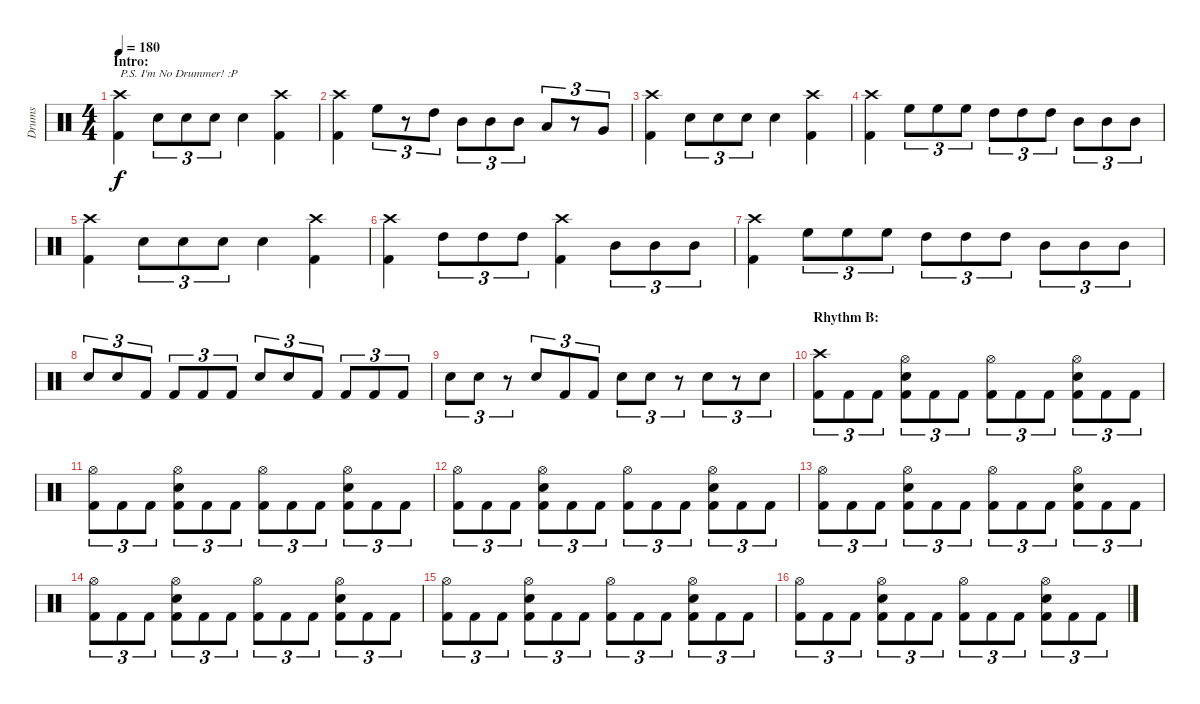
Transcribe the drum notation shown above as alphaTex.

\track ("Drums" "Drums") {instrument percussion}
\staff {score}
\articulation defaults
\ts (4 4)
\section ("" "Intro:")
\tempo 180
\clef neutral
\ks c
("Crash high (hit)" "Kick (hit) 2").4{txt "P.S. I'm No Drummer! :P" dy f} "Electric Snare (hit)".8{tu (3 2)} "Electric Snare (hit)".8{tu (3 2)} "Electric Snare (hit)".8{tu (3 2)} "Electric Snare (hit)".4 ("Crash high (hit)" "Kick (hit) 2").4 |
("Crash high (hit)" "Kick (hit) 2").4 "High Floor Tom (hit)".8{tu (3 2)} r.8{tu (3 2)} "High Tom (hit)".8{tu (3 2)} "Mid Tom (hit)".8{tu (3 2)} "Mid Tom (hit)".8{tu (3 2)} "Mid Tom (hit)".8{tu (3 2)} "Low Tom (hit)".8{tu (3 2)} r.8{tu (3 2)} "Very Low Tom (hit)".8{tu (3 2)} |
("Crash high (hit)" "Kick (hit) 2").4 "Electric Snare (hit)".8{tu (3 2)} "Electric Snare (hit)".8{tu (3 2)} "Electric Snare (hit)".8{tu (3 2)} "Electric Snare (hit)".4 ("Crash high (hit)" "Kick (hit) 2").4 |
("Crash high (hit)" "Kick (hit) 2").4 "High Floor Tom (hit)".8{tu (3 2)} "High Floor Tom (hit)".8{tu (3 2)} "High Floor Tom (hit)".8{tu (3 2)} "High Tom (hit)".8{tu (3 2)} "High Tom (hit)".8{tu (3 2)} "High Tom (hit)".8{tu (3 2)} "Mid Tom (hit)".8{tu (3 2)} "Mid Tom (hit)".8{tu (3 2)} "Mid Tom (hit)".8{tu (3 2)} |
("Crash high (hit)" "Kick (hit) 2").4 "Electric Snare (hit)".8{tu (3 2)} "Electric Snare (hit)".8{tu (3 2)} "Electric Snare (hit)".8{tu (3 2)} "Electric Snare (hit)".4 ("Crash high (hit)" "Kick (hit) 2").4 |
("Crash high (hit)" "Kick (hit) 2").4 "High Tom (hit)".8{tu (3 2)} "High Tom (hit)".8{tu (3 2)} "High Tom (hit)".8{tu (3 2)} ("Crash high (hit)" "Kick (hit) 2").4 "Mid Tom (hit)".8{tu (3 2)} "Mid Tom (hit)".8{tu (3 2)} "Mid Tom (hit)".8{tu (3 2)} |
("Crash high (hit)" "Kick (hit) 2").4 "High Floor Tom (hit)".8{tu (3 2)} "High Floor Tom (hit)".8{tu (3 2)} "High Floor Tom (hit)".8{tu (3 2)} "High Tom (hit)".8{tu (3 2)} "High Tom (hit)".8{tu (3 2)} "High Tom (hit)".8{tu (3 2)} "Mid Tom (hit)".8{tu (3 2)} "Mid Tom (hit)".8{tu (3 2)} "Mid Tom (hit)".8{tu (3 2)} |
"Electric Snare (hit)".8{tu (3 2)} "Electric Snare (hit)".8{tu (3 2)} "Kick (hit) 2".8{tu (3 2)} "Kick (hit) 2".8{tu (3 2)} "Kick (hit) 2".8{tu (3 2)} "Kick (hit) 2".8{tu (3 2)} "Electric Snare (hit)".8{tu (3 2)} "Electric Snare (hit)".8{tu (3 2)} "Kick (hit) 2".8{tu (3 2)} "Kick (hit) 2".8{tu (3 2)} "Kick (hit) 2".8{tu (3 2)} "Kick (hit) 2".8{tu (3 2)} |
"Electric Snare (hit)".8{tu (3 2)} "Electric Snare (hit)".8{tu (3 2)} r.8{tu (3 2)} "Electric Snare (hit)".8{tu (3 2)} "Kick (hit) 2".8{tu (3 2)} "Kick (hit) 2".8{tu (3 2)} "Electric Snare (hit)".8{tu (3 2)} "Electric Snare (hit)".8{tu (3 2)} r.8{tu (3 2)} "Electric Snare (hit)".8{tu (3 2)} r.8{tu (3 2)} "Electric Snare (hit)".8{tu (3 2)} |
\section ("" "Rhythm B:")
("Crash high (hit)" "Kick (hit) 2").8{tu (3 2)} "Kick (hit) 2".8{tu (3 2)} "Kick (hit) 2".8{tu (3 2)} ("Hi-Hat (open)" "Electric Snare (hit)" "Kick (hit) 2").8{tu (3 2)} "Kick (hit) 2".8{tu (3 2)} "Kick (hit) 2".8{tu (3 2)} ("Hi-Hat (open)" "Kick (hit) 2").8{tu (3 2)} "Kick (hit) 2".8{tu (3 2)} "Kick (hit) 2".8{tu (3 2)} ("Hi-Hat (open)" "Electric Snare (hit)" "Kick (hit) 2").8{tu (3 2)} "Kick (hit) 2".8{tu (3 2)} "Kick (hit) 2".8{tu (3 2)} |
("Hi-Hat (open)" "Kick (hit) 2").8{tu (3 2)} "Kick (hit) 2".8{tu (3 2)} "Kick (hit) 2".8{tu (3 2)} ("Hi-Hat (open)" "Electric Snare (hit)" "Kick (hit) 2").8{tu (3 2)} "Kick (hit) 2".8{tu (3 2)} "Kick (hit) 2".8{tu (3 2)} ("Hi-Hat (open)" "Kick (hit) 2").8{tu (3 2)} "Kick (hit) 2".8{tu (3 2)} "Kick (hit) 2".8{tu (3 2)} ("Hi-Hat (open)" "Electric Snare (hit)" "Kick (hit) 2").8{tu (3 2)} "Kick (hit) 2".8{tu (3 2)} "Kick (hit) 2".8{tu (3 2)} |
("Hi-Hat (open)" "Kick (hit) 2").8{tu (3 2)} "Kick (hit) 2".8{tu (3 2)} "Kick (hit) 2".8{tu (3 2)} ("Hi-Hat (open)" "Electric Snare (hit)" "Kick (hit) 2").8{tu (3 2)} "Kick (hit) 2".8{tu (3 2)} "Kick (hit) 2".8{tu (3 2)} ("Hi-Hat (open)" "Kick (hit) 2").8{tu (3 2)} "Kick (hit) 2".8{tu (3 2)} "Kick (hit) 2".8{tu (3 2)} ("Hi-Hat (open)" "Electric Snare (hit)" "Kick (hit) 2").8{tu (3 2)} "Kick (hit) 2".8{tu (3 2)} "Kick (hit) 2".8{tu (3 2)} |
("Hi-Hat (open)" "Kick (hit) 2").8{tu (3 2)} "Kick (hit) 2".8{tu (3 2)} "Kick (hit) 2".8{tu (3 2)} ("Hi-Hat (open)" "Electric Snare (hit)" "Kick (hit) 2").8{tu (3 2)} "Kick (hit) 2".8{tu (3 2)} "Kick (hit) 2".8{tu (3 2)} ("Hi-Hat (open)" "Kick (hit) 2").8{tu (3 2)} "Kick (hit) 2".8{tu (3 2)} "Kick (hit) 2".8{tu (3 2)} ("Hi-Hat (open)" "Electric Snare (hit)" "Kick (hit) 2").8{tu (3 2)} "Kick (hit) 2".8{tu (3 2)} "Kick (hit) 2".8{tu (3 2)} |
("Hi-Hat (open)" "Kick (hit) 2").8{tu (3 2)} "Kick (hit) 2".8{tu (3 2)} "Kick (hit) 2".8{tu (3 2)} ("Hi-Hat (open)" "Electric Snare (hit)" "Kick (hit) 2").8{tu (3 2)} "Kick (hit) 2".8{tu (3 2)} "Kick (hit) 2".8{tu (3 2)} ("Hi-Hat (open)" "Kick (hit) 2").8{tu (3 2)} "Kick (hit) 2".8{tu (3 2)} "Kick (hit) 2".8{tu (3 2)} ("Hi-Hat (open)" "Electric Snare (hit)" "Kick (hit) 2").8{tu (3 2)} "Kick (hit) 2".8{tu (3 2)} "Kick (hit) 2".8{tu (3 2)} |
("Hi-Hat (open)" "Kick (hit) 2").8{tu (3 2)} "Kick (hit) 2".8{tu (3 2)} "Kick (hit) 2".8{tu (3 2)} ("Hi-Hat (open)" "Electric Snare (hit)" "Kick (hit) 2").8{tu (3 2)} "Kick (hit) 2".8{tu (3 2)} "Kick (hit) 2".8{tu (3 2)} ("Hi-Hat (open)" "Kick (hit) 2").8{tu (3 2)} "Kick (hit) 2".8{tu (3 2)} "Kick (hit) 2".8{tu (3 2)} ("Hi-Hat (open)" "Electric Snare (hit)" "Kick (hit) 2").8{tu (3 2)} "Kick (hit) 2".8{tu (3 2)} "Kick (hit) 2".8{tu (3 2)} |
("Hi-Hat (open)" "Kick (hit) 2").8{tu (3 2)} "Kick (hit) 2".8{tu (3 2)} "Kick (hit) 2".8{tu (3 2)} ("Hi-Hat (open)" "Electric Snare (hit)" "Kick (hit) 2").8{tu (3 2)} "Kick (hit) 2".8{tu (3 2)} "Kick (hit) 2".8{tu (3 2)} ("Hi-Hat (open)" "Kick (hit) 2").8{tu (3 2)} "Kick (hit) 2".8{tu (3 2)} "Kick (hit) 2".8{tu (3 2)} ("Hi-Hat (open)" "Electric Snare (hit)" "Kick (hit) 2").8{tu (3 2)} "Kick (hit) 2".8{tu (3 2)} "Kick (hit) 2".8{tu (3 2)}
